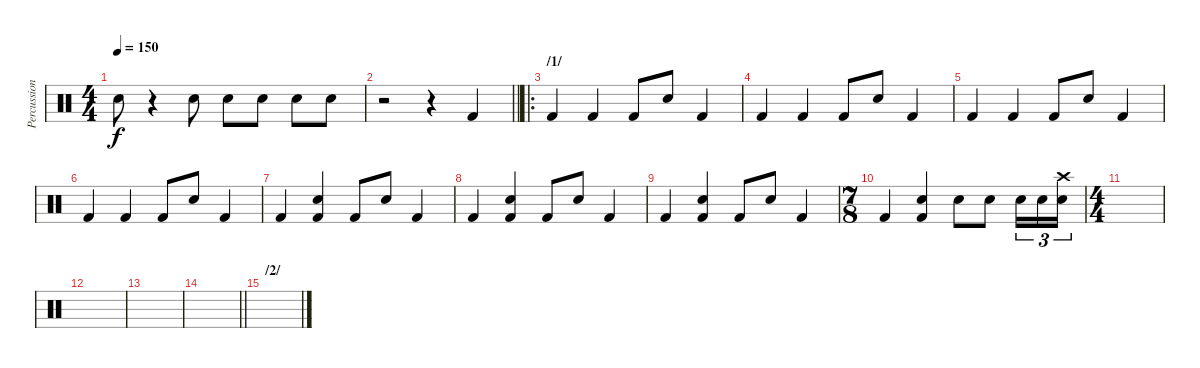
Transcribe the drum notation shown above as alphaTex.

\track ("Percussion" "Percussion") {instrument percussion}
\staff {score}
\articulation defaults
\ts (4 4)
\tempo 150
\clef neutral
\ks c "Snare (hit) 2".8{dy f}
r.4 "Snare (hit) 2".8 "Snare (hit) 2".8 "Snare (hit) 2".8 "Snare (hit) 2".8 "Snare (hit) 2".8 |
\barLineRight lightlight
r.2 r.4 "Kick (hit) 2".4 |
\ro
\section ("" "/1/")
"Kick (hit) 2".4 "Kick (hit) 2".4 "Kick (hit) 2".8 "Snare (hit) 2".8 "Kick (hit) 2".4 |
"Kick (hit) 2".4 "Kick (hit) 2".4 "Kick (hit) 2".8 "Snare (hit) 2".8 "Kick (hit) 2".4 |
"Kick (hit) 2".4 "Kick (hit) 2".4 "Kick (hit) 2".8 "Snare (hit) 2".8 "Kick (hit) 2".4 |
"Kick (hit) 2".4 "Kick (hit) 2".4 "Kick (hit) 2".8 "Snare (hit) 2".8 "Kick (hit) 2".4 |
"Kick (hit) 2".4 ("Electric Snare (hit)" "Kick (hit) 2").4 "Kick (hit) 2".8 "Snare (hit) 2".8 "Kick (hit) 2".4 |
"Kick (hit) 2".4 ("Electric Snare (hit)" "Kick (hit) 2").4 "Kick (hit) 2".8 "Snare (hit) 2".8 "Kick (hit) 2".4 |
"Kick (hit) 2".4 ("Electric Snare (hit)" "Kick (hit) 2").4 "Kick (hit) 2".8 "Snare (hit) 2".8 "Kick (hit) 2".4 |
\ts (7 8)
"Kick (hit) 2".4 ("Electric Snare (hit)" "Kick (hit) 2").4 "Snare (hit) 2".8 "Snare (hit) 2".8 "Snare (hit) 2".16{tu (3 2)} "Snare (hit) 2".16{tu (3 2)} ("Crash high (hit)" "Snare (hit) 2").16{tu (3 2)} |
\ts (4 4)
|
|
|
\barLineRight lightlight
|
\section ("" "/2/")
